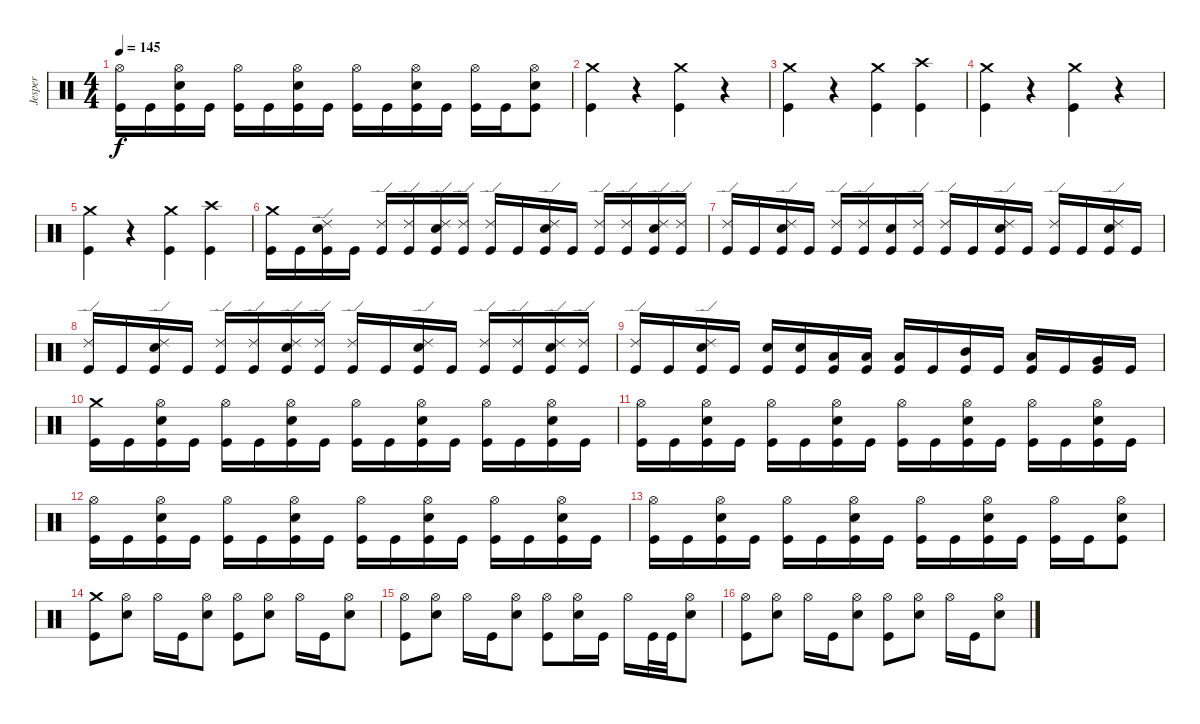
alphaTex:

\track ("Jesper" "Jesper") {instrument percussion}
\staff {score}
\articulation defaults
\ts (4 4)
\tempo 145
\clef neutral
\ks c
("Hi-Hat (open)" "Kick (hit)").16{dy f} "Kick (hit)".16 ("Hi-Hat (open)" "Electric Snare (hit)" "Kick (hit)").16 "Kick (hit)".16 ("Hi-Hat (open)" "Kick (hit)").16 "Kick (hit)".16 ("Hi-Hat (open)" "Electric Snare (hit)" "Kick (hit)").16 "Kick (hit)".16 ("Hi-Hat (open)" "Kick (hit)").16 "Kick (hit)".16 ("Hi-Hat (open)" "Electric Snare (hit)" "Kick (hit)").16 "Kick (hit)".16 ("Hi-Hat (open)" "Kick (hit)").16 "Kick (hit)".16 ("Hi-Hat (open)" "Electric Snare (hit)" "Kick (hit)").8 |
("Crash medium (hit)" "Kick (hit)").4 r.4{volume 0} ("Crash medium (hit)" "Kick (hit)").4{volume 16} r.4{volume 0} |
("Crash medium (hit)" "Kick (hit)").4{volume 16} r.4{volume 0} ("Crash medium (hit)" "Kick (hit)").4{volume 16} ("Crash high (hit)" "Kick (hit)").4 |
("Crash medium (hit)" "Kick (hit)").4 r.4{volume 0} ("Crash medium (hit)" "Kick (hit)").4{volume 16} r.4{volume 0} |
("Crash medium (hit)" "Kick (hit)").4{volume 16} r.4{volume 0} ("Crash medium (hit)" "Kick (hit)").4{volume 16} ("Crash high (hit)" "Kick (hit)").4 |
("Crash medium (hit)" "Kick (hit)").16 "Kick (hit)".16 ("Ride (edge) 2" "Electric Snare (hit)" "Kick (hit)").16 "Kick (hit)".16 ("Ride (edge) 2" "Kick (hit)").16 ("Ride (edge) 2" "Kick (hit)").16 ("Ride (edge) 2" "Electric Snare (hit)" "Kick (hit)").16 ("Ride (edge) 2" "Kick (hit)").16 ("Ride (edge) 2" "Kick (hit)").16 "Kick (hit)".16 ("Ride (edge) 2" "Electric Snare (hit)" "Kick (hit)").16 "Kick (hit)".16 ("Ride (edge) 2" "Kick (hit)").16 ("Ride (edge) 2" "Kick (hit)").16 ("Ride (edge) 2" "Electric Snare (hit)" "Kick (hit)").16 ("Ride (edge) 2" "Kick (hit)").16 |
("Ride (edge) 2" "Kick (hit)").16 "Kick (hit)".16 ("Ride (edge) 2" "Electric Snare (hit)" "Kick (hit)").16 "Kick (hit)".16 ("Ride (edge) 2" "Kick (hit)").16 ("Ride (edge) 2" "Kick (hit)").16 ("Electric Snare (hit)" "Kick (hit)").16 ("Ride (edge) 2" "Kick (hit)").16 ("Ride (edge) 2" "Kick (hit)").16 "Kick (hit)".16 ("Ride (edge) 2" "Electric Snare (hit)" "Kick (hit)").16 "Kick (hit)".16 ("Ride (edge) 2" "Kick (hit)").16 "Kick (hit)".16 ("Ride (edge) 2" "Electric Snare (hit)" "Kick (hit)").16 "Kick (hit)".16 |
("Ride (edge) 2" "Kick (hit)").16 "Kick (hit)".16 ("Ride (edge) 2" "Electric Snare (hit)" "Kick (hit)").16 "Kick (hit)".16 ("Ride (edge) 2" "Kick (hit)").16 ("Ride (edge) 2" "Kick (hit)").16 ("Ride (edge) 2" "Electric Snare (hit)" "Kick (hit)").16 ("Ride (edge) 2" "Kick (hit)").16 ("Ride (edge) 2" "Kick (hit)").16 "Kick (hit)".16 ("Ride (edge) 2" "Electric Snare (hit)" "Kick (hit)").16 "Kick (hit)".16 ("Ride (edge) 2" "Kick (hit)").16 ("Ride (edge) 2" "Kick (hit)").16 ("Ride (edge) 2" "Electric Snare (hit)" "Kick (hit)").16 ("Ride (edge) 2" "Kick (hit)").16 |
("Ride (edge) 2" "Kick (hit)").16 "Kick (hit)".16 ("Ride (edge) 2" "Electric Snare (hit)" "Kick (hit)").16 "Kick (hit)".16 ("Electric Snare (hit)" "Kick (hit)").16 ("Electric Snare (hit)" "Kick (hit)").16 ("Low Tom (hit)" "Kick (hit)").16 ("Low Tom (hit)" "Kick (hit)").16 ("Low Tom (hit)" "Kick (hit)").16 "Kick (hit)".16 ("Mid Tom (hit)" "Kick (hit)").16 "Kick (hit)".16 ("Low Floor Tom (hit)" "Kick (hit)").16 "Kick (hit)".16 ("Very Low Tom (hit)" "Kick (hit)").16 "Kick (hit)".16 |
("Crash medium (hit)" "Kick (hit)").16 "Kick (hit)".16 ("Hi-Hat (open)" "Electric Snare (hit)" "Kick (hit)").16 "Kick (hit)".16 ("Hi-Hat (open)" "Kick (hit)").16 "Kick (hit)".16 ("Hi-Hat (open)" "Electric Snare (hit)" "Kick (hit)").16 "Kick (hit)".16 ("Hi-Hat (open)" "Kick (hit)").16 "Kick (hit)".16 ("Hi-Hat (open)" "Electric Snare (hit)" "Kick (hit)").16 "Kick (hit)".16 ("Hi-Hat (open)" "Kick (hit)").16 "Kick (hit)".16 ("Hi-Hat (open)" "Electric Snare (hit)" "Kick (hit)").16 "Kick (hit)".16 |
("Hi-Hat (open)" "Kick (hit)").16 "Kick (hit)".16 ("Hi-Hat (open)" "Electric Snare (hit)" "Kick (hit)").16 "Kick (hit)".16 ("Hi-Hat (open)" "Kick (hit)").16 "Kick (hit)".16 ("Hi-Hat (open)" "Electric Snare (hit)" "Kick (hit)").16 "Kick (hit)".16 ("Hi-Hat (open)" "Kick (hit)").16 "Kick (hit)".16 ("Hi-Hat (open)" "Electric Snare (hit)" "Kick (hit)").16 "Kick (hit)".16 ("Hi-Hat (open)" "Kick (hit)").16 "Kick (hit)".16 ("Hi-Hat (open)" "Electric Snare (hit)" "Kick (hit)").16 "Kick (hit)".16 |
("Hi-Hat (open)" "Kick (hit)").16 "Kick (hit)".16 ("Hi-Hat (open)" "Electric Snare (hit)" "Kick (hit)").16 "Kick (hit)".16 ("Hi-Hat (open)" "Kick (hit)").16 "Kick (hit)".16 ("Hi-Hat (open)" "Electric Snare (hit)" "Kick (hit)").16 "Kick (hit)".16 ("Hi-Hat (open)" "Kick (hit)").16 "Kick (hit)".16 ("Hi-Hat (open)" "Electric Snare (hit)" "Kick (hit)").16 "Kick (hit)".16 ("Hi-Hat (open)" "Kick (hit)").16 "Kick (hit)".16 ("Hi-Hat (open)" "Electric Snare (hit)" "Kick (hit)").16 "Kick (hit)".16 |
("Hi-Hat (open)" "Kick (hit)").16 "Kick (hit)".16 ("Hi-Hat (open)" "Electric Snare (hit)" "Kick (hit)").16 "Kick (hit)".16 ("Hi-Hat (open)" "Kick (hit)").16 "Kick (hit)".16 ("Hi-Hat (open)" "Electric Snare (hit)" "Kick (hit)").16 "Kick (hit)".16 ("Hi-Hat (open)" "Kick (hit)").16 "Kick (hit)".16 ("Hi-Hat (open)" "Electric Snare (hit)" "Kick (hit)").16 "Kick (hit)".16 ("Hi-Hat (open)" "Kick (hit)").16 "Kick (hit)".16 ("Hi-Hat (open)" "Electric Snare (hit)" "Kick (hit)").8 |
("Crash medium (hit)" "Kick (hit)").8 ("Hi-Hat (open)" "Electric Snare (hit)").8 "Hi-Hat (open)".16 "Kick (hit)".16 ("Hi-Hat (open)" "Electric Snare (hit)").8 ("Hi-Hat (open)" "Kick (hit)").8 ("Hi-Hat (open)" "Electric Snare (hit)").8 "Hi-Hat (open)".16 "Kick (hit)".16 ("Hi-Hat (open)" "Electric Snare (hit)").8 |
("Hi-Hat (open)" "Kick (hit)").8 ("Hi-Hat (open)" "Electric Snare (hit)").8 "Hi-Hat (open)".16 "Kick (hit)".16 ("Hi-Hat (open)" "Electric Snare (hit)").8 ("Hi-Hat (open)" "Kick (hit)").8 ("Hi-Hat (open)" "Electric Snare (hit)").16 "Kick (hit)".16 "Hi-Hat (open)".16 "Kick (hit)".32 "Kick (hit)".32 ("Hi-Hat (open)" "Electric Snare (hit)").8 |
("Hi-Hat (open)" "Kick (hit)").8 ("Hi-Hat (open)" "Electric Snare (hit)").8 "Hi-Hat (open)".16 "Kick (hit)".16 ("Hi-Hat (open)" "Electric Snare (hit)").8 ("Hi-Hat (open)" "Kick (hit)").8 ("Hi-Hat (open)" "Electric Snare (hit)").8 "Hi-Hat (open)".16 "Kick (hit)".16 ("Hi-Hat (open)" "Electric Snare (hit)").8
